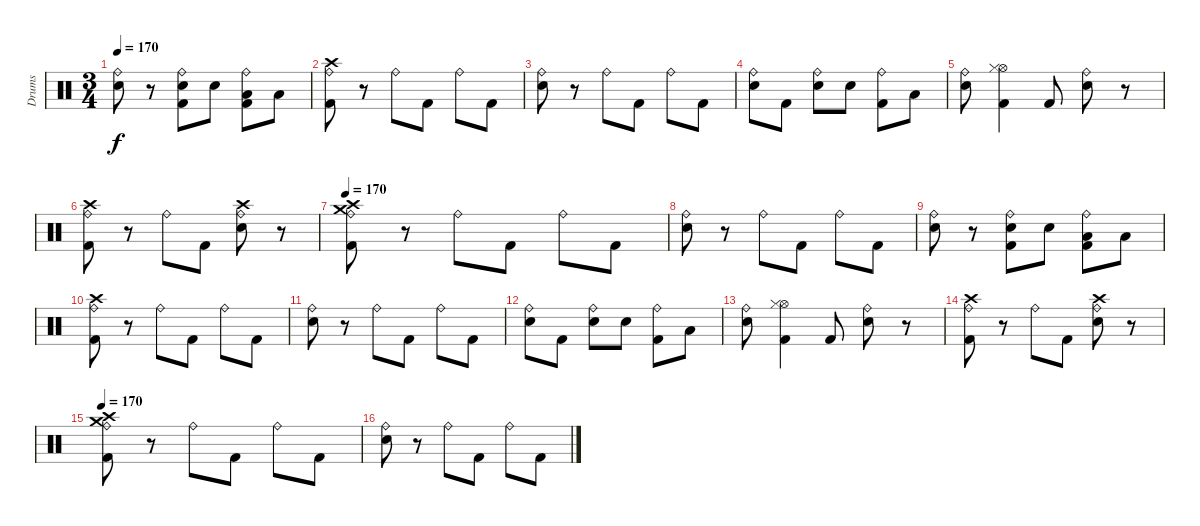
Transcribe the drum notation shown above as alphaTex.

\track ("Drums" "Drums") {instrument percussion}
\staff {score}
\articulation defaults
\ts (3 4)
\tempo 170
\clef neutral
\ks c
("Ride (bell)" "Electric Snare (hit)").8{dy f} r.8 ("Ride (bell)" "Electric Snare (hit)" "Kick (hit) 2").8 "Electric Snare (hit)".8 ("Ride (bell)" "Low Tom (hit)" "Kick (hit) 2").8 "Low Tom (hit)".8 |
("Ride (bell)" "Crash high (hit)" "Kick (hit) 2").8 r.8 "Ride (bell)".8 "Kick (hit) 2".8 "Ride (bell)".8 "Kick (hit) 2".8 |
("Ride (bell)" "Electric Snare (hit)").8 r.8 "Ride (bell)".8 "Kick (hit) 2".8 "Ride (bell)".8 "Kick (hit) 2".8 |
("Ride (bell)" "Electric Snare (hit)").8 "Kick (hit) 2".8 ("Ride (bell)" "Electric Snare (hit)").8 "Electric Snare (hit)".8 ("Ride (bell)" "Kick (hit) 2").8 "Low Tom (hit)".8 |
("Ride (bell)" "Electric Snare (hit)").8 ("Hi-Hat (open)" "Hi-Hat (closed)" "Kick (hit) 2").4 "Kick (hit) 2".8 ("Ride (bell)" "Electric Snare (hit)").8 r.8 |
("Ride (bell)" "Crash high (hit)" "Kick (hit) 2").8 r.8 "Ride (bell)".8 "Kick (hit) 2".8 ("Ride (bell)" "Electric Snare (hit)" "Crash high (hit)").8 r.8 |
\tempo 170
("Ride (bell)" "Crash high (hit)" "Crash medium (hit)" "Kick (hit) 2").8 r.8 "Ride (bell)".8 "Kick (hit) 2".8 "Ride (bell)".8 "Kick (hit) 2".8 |
("Ride (bell)" "Electric Snare (hit)").8 r.8 "Ride (bell)".8 "Kick (hit) 2".8 "Ride (bell)".8 "Kick (hit) 2".8 |
("Ride (bell)" "Electric Snare (hit)").8 r.8 ("Ride (bell)" "Electric Snare (hit)" "Kick (hit) 2").8 "Electric Snare (hit)".8 ("Ride (bell)" "Low Tom (hit)" "Kick (hit) 2").8 "Low Tom (hit)".8 |
("Ride (bell)" "Crash high (hit)" "Kick (hit) 2").8 r.8 "Ride (bell)".8 "Kick (hit) 2".8 "Ride (bell)".8 "Kick (hit) 2".8 |
("Ride (bell)" "Electric Snare (hit)").8 r.8 "Ride (bell)".8 "Kick (hit) 2".8 "Ride (bell)".8 "Kick (hit) 2".8 |
("Ride (bell)" "Electric Snare (hit)").8 "Kick (hit) 2".8 ("Ride (bell)" "Electric Snare (hit)").8 "Electric Snare (hit)".8 ("Ride (bell)" "Kick (hit) 2").8 "Low Tom (hit)".8 |
("Ride (bell)" "Electric Snare (hit)").8 ("Hi-Hat (open)" "Hi-Hat (closed)" "Kick (hit) 2").4 "Kick (hit) 2".8 ("Ride (bell)" "Electric Snare (hit)").8 r.8 |
("Ride (bell)" "Crash high (hit)" "Kick (hit) 2").8 r.8 "Ride (bell)".8 "Kick (hit) 2".8 ("Ride (bell)" "Electric Snare (hit)" "Crash high (hit)").8 r.8 |
\tempo 170
("Ride (bell)" "Crash high (hit)" "Crash medium (hit)" "Kick (hit) 2").8 r.8 "Ride (bell)".8 "Kick (hit) 2".8 "Ride (bell)".8 "Kick (hit) 2".8 |
("Ride (bell)" "Electric Snare (hit)").8 r.8 "Ride (bell)".8 "Kick (hit) 2".8 "Ride (bell)".8 "Kick (hit) 2".8
